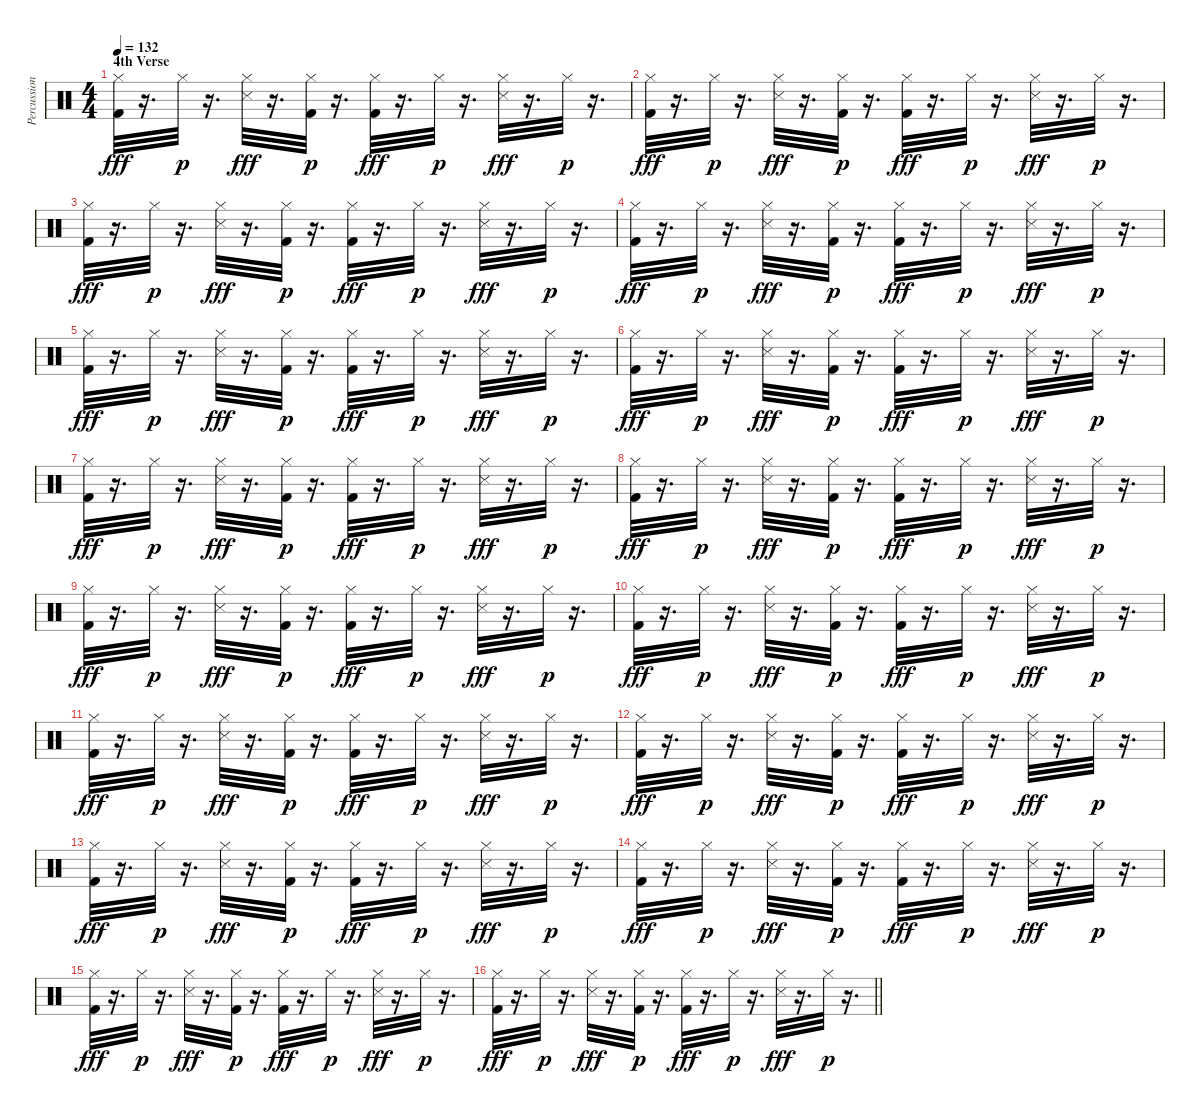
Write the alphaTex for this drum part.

\track ("Percussion" "Percussion") {instrument percussion}
\staff {score}
\articulation defaults
\ts (4 4)
\section ("" "4th Verse")
\tempo 132
\clef neutral
\ks c
("Kick (hit) 2" "Hi-Hat (closed)").32{dy fff} r.16{d} "Hi-Hat (closed)".32{dy p} r.16{d} ("Snare (side stick) 3" "Hi-Hat (closed)").32{dy fff} r.16{d} ("Kick (hit) 2" "Hi-Hat (closed)").32{dy p} r.16{d} ("Kick (hit) 2" "Hi-Hat (closed)").32{dy fff} r.16{d} "Hi-Hat (closed)".32{dy p} r.16{d} ("Snare (side stick) 3" "Hi-Hat (closed)").32{dy fff} r.16{d} "Hi-Hat (closed)".32{dy p} r.16{d} |
("Kick (hit) 2" "Hi-Hat (closed)").32{dy fff} r.16{d} "Hi-Hat (closed)".32{dy p} r.16{d} ("Snare (side stick) 3" "Hi-Hat (closed)").32{dy fff} r.16{d} ("Kick (hit) 2" "Hi-Hat (closed)").32{dy p} r.16{d} ("Kick (hit) 2" "Hi-Hat (closed)").32{dy fff} r.16{d} "Hi-Hat (closed)".32{dy p} r.16{d} ("Snare (side stick) 3" "Hi-Hat (closed)").32{dy fff} r.16{d} "Hi-Hat (closed)".32{dy p} r.16{d} |
("Kick (hit) 2" "Hi-Hat (closed)").32{dy fff} r.16{d} "Hi-Hat (closed)".32{dy p} r.16{d} ("Hi-Hat (closed)" "Snare (side stick) 3").32{dy fff} r.16{d} ("Kick (hit) 2" "Hi-Hat (closed)").32{dy p} r.16{d} ("Kick (hit) 2" "Hi-Hat (closed)").32{dy fff} r.16{d} "Hi-Hat (closed)".32{dy p} r.16{d} ("Snare (side stick) 3" "Hi-Hat (closed)").32{dy fff} r.16{d} "Hi-Hat (closed)".32{dy p} r.16{d} |
("Kick (hit) 2" "Hi-Hat (closed)").32{dy fff} r.16{d} "Hi-Hat (closed)".32{dy p} r.16{d} ("Hi-Hat (closed)" "Snare (side stick) 3").32{dy fff} r.16{d} ("Kick (hit) 2" "Hi-Hat (closed)").32{dy p} r.16{d} ("Kick (hit) 2" "Hi-Hat (closed)").32{dy fff} r.16{d} "Hi-Hat (closed)".32{dy p} r.16{d} ("Snare (side stick) 3" "Hi-Hat (closed)").32{dy fff} r.16{d} "Hi-Hat (closed)".32{dy p} r.16{d} |
("Kick (hit) 2" "Hi-Hat (closed)").32{dy fff} r.16{d} "Hi-Hat (closed)".32{dy p} r.16{d} ("Snare (side stick) 3" "Hi-Hat (closed)").32{dy fff} r.16{d} ("Kick (hit) 2" "Hi-Hat (closed)").32{dy p} r.16{d} ("Kick (hit) 2" "Hi-Hat (closed)").32{dy fff} r.16{d} "Hi-Hat (closed)".32{dy p} r.16{d} ("Snare (side stick) 3" "Hi-Hat (closed)").32{dy fff} r.16{d} "Hi-Hat (closed)".32{dy p} r.16{d} |
("Kick (hit) 2" "Hi-Hat (closed)").32{dy fff} r.16{d} "Hi-Hat (closed)".32{dy p} r.16{d} ("Snare (side stick) 3" "Hi-Hat (closed)").32{dy fff} r.16{d} ("Kick (hit) 2" "Hi-Hat (closed)").32{dy p} r.16{d} ("Kick (hit) 2" "Hi-Hat (closed)").32{dy fff} r.16{d} "Hi-Hat (closed)".32{dy p} r.16{d} ("Hi-Hat (closed)" "Snare (side stick) 3").32{dy fff} r.16{d} "Hi-Hat (closed)".32{dy p} r.16{d} |
("Kick (hit) 2" "Hi-Hat (closed)").32{dy fff} r.16{d} "Hi-Hat (closed)".32{dy p} r.16{d} ("Snare (side stick) 3" "Hi-Hat (closed)").32{dy fff} r.16{d} ("Kick (hit) 2" "Hi-Hat (closed)").32{dy p} r.16{d} ("Kick (hit) 2" "Hi-Hat (closed)").32{dy fff} r.16{d} "Hi-Hat (closed)".32{dy p} r.16{d} ("Hi-Hat (closed)" "Snare (side stick) 3").32{dy fff} r.16{d} "Hi-Hat (closed)".32{dy p} r.16{d} |
("Kick (hit) 2" "Hi-Hat (closed)").32{dy fff} r.16{d} "Hi-Hat (closed)".32{dy p} r.16{d} ("Snare (side stick) 3" "Hi-Hat (closed)").32{dy fff} r.16{d} ("Kick (hit) 2" "Hi-Hat (closed)").32{dy p} r.16{d} ("Kick (hit) 2" "Hi-Hat (closed)").32{dy fff} r.16{d} "Hi-Hat (closed)".32{dy p} r.16{d} ("Hi-Hat (closed)" "Snare (side stick) 3").32{dy fff} r.16{d} "Hi-Hat (closed)".32{dy p} r.16{d} |
("Kick (hit) 2" "Hi-Hat (closed)").32{dy fff} r.16{d} "Hi-Hat (closed)".32{dy p} r.16{d} ("Snare (side stick) 3" "Hi-Hat (closed)").32{dy fff} r.16{d} ("Kick (hit) 2" "Hi-Hat (closed)").32{dy p} r.16{d} ("Kick (hit) 2" "Hi-Hat (closed)").32{dy fff} r.16{d} "Hi-Hat (closed)".32{dy p} r.16{d} ("Snare (side stick) 3" "Hi-Hat (closed)").32{dy fff} r.16{d} "Hi-Hat (closed)".32{dy p} r.16{d} |
("Kick (hit) 2" "Hi-Hat (closed)").32{dy fff} r.16{d} "Hi-Hat (closed)".32{dy p} r.16{d} ("Snare (side stick) 3" "Hi-Hat (closed)").32{dy fff} r.16{d} ("Kick (hit) 2" "Hi-Hat (closed)").32{dy p} r.16{d} ("Kick (hit) 2" "Hi-Hat (closed)").32{dy fff} r.16{d} "Hi-Hat (closed)".32{dy p} r.16{d} ("Hi-Hat (closed)" "Snare (side stick) 3").32{dy fff} r.16{d} "Hi-Hat (closed)".32{dy p} r.16{d} |
("Kick (hit) 2" "Hi-Hat (closed)").32{dy fff} r.16{d} "Hi-Hat (closed)".32{dy p} r.16{d} ("Hi-Hat (closed)" "Snare (side stick) 3").32{dy fff} r.16{d} ("Kick (hit) 2" "Hi-Hat (closed)").32{dy p} r.16{d} ("Kick (hit) 2" "Hi-Hat (closed)").32{dy fff} r.16{d} "Hi-Hat (closed)".32{dy p} r.16{d} ("Snare (side stick) 3" "Hi-Hat (closed)").32{dy fff} r.16{d} "Hi-Hat (closed)".32{dy p} r.16{d} |
("Kick (hit) 2" "Hi-Hat (closed)").32{dy fff} r.16{d} "Hi-Hat (closed)".32{dy p} r.16{d} ("Snare (side stick) 3" "Hi-Hat (closed)").32{dy fff} r.16{d} ("Kick (hit) 2" "Hi-Hat (closed)").32{dy p} r.16{d} ("Kick (hit) 2" "Hi-Hat (closed)").32{dy fff} r.16{d} "Hi-Hat (closed)".32{dy p} r.16{d} ("Hi-Hat (closed)" "Snare (side stick) 3").32{dy fff} r.16{d} "Hi-Hat (closed)".32{dy p} r.16{d} |
("Kick (hit) 2" "Hi-Hat (closed)").32{dy fff} r.16{d} "Hi-Hat (closed)".32{dy p} r.16{d} ("Hi-Hat (closed)" "Snare (side stick) 3").32{dy fff} r.16{d} ("Kick (hit) 2" "Hi-Hat (closed)").32{dy p} r.16{d} ("Kick (hit) 2" "Hi-Hat (closed)").32{dy fff} r.16{d} "Hi-Hat (closed)".32{dy p} r.16{d} ("Snare (side stick) 3" "Hi-Hat (closed)").32{dy fff} r.16{d} "Hi-Hat (closed)".32{dy p} r.16{d} |
("Kick (hit) 2" "Hi-Hat (closed)").32{dy fff} r.16{d} "Hi-Hat (closed)".32{dy p} r.16{d} ("Snare (side stick) 3" "Hi-Hat (closed)").32{dy fff} r.16{d} ("Kick (hit) 2" "Hi-Hat (closed)").32{dy p} r.16{d} ("Kick (hit) 2" "Hi-Hat (closed)").32{dy fff} r.16{d} "Hi-Hat (closed)".32{dy p} r.16{d} ("Hi-Hat (closed)" "Snare (side stick) 3").32{dy fff} r.16{d} "Hi-Hat (closed)".32{dy p} r.16{d} |
("Kick (hit) 2" "Hi-Hat (closed)").32{dy fff} r.16{d} "Hi-Hat (closed)".32{dy p} r.16{d} ("Hi-Hat (closed)" "Snare (side stick) 3").32{dy fff} r.16{d} ("Kick (hit) 2" "Hi-Hat (closed)").32{dy p} r.16{d} ("Kick (hit) 2" "Hi-Hat (closed)").32{dy fff} r.16{d} "Hi-Hat (closed)".32{dy p} r.16{d} ("Snare (side stick) 3" "Hi-Hat (closed)").32{dy fff} r.16{d} "Hi-Hat (closed)".32{dy p} r.16{d} |
\barLineRight lightlight
("Kick (hit) 2" "Hi-Hat (closed)").32{dy fff} r.16{d} "Hi-Hat (closed)".32{dy p} r.16{d} ("Snare (side stick) 3" "Hi-Hat (closed)").32{dy fff} r.16{d} ("Kick (hit) 2" "Hi-Hat (closed)").32{dy p} r.16{d} ("Kick (hit) 2" "Hi-Hat (closed)").32{dy fff} r.16{d} "Hi-Hat (closed)".32{dy p} r.16{d} ("Hi-Hat (closed)" "Snare (side stick) 3").32{dy fff} r.16{d} "Hi-Hat (closed)".32{dy p} r.16{d}
